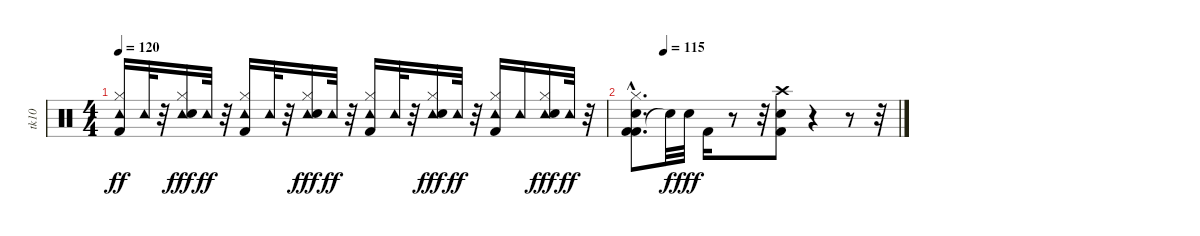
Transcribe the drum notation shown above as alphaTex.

\track ("tk10" "tk10") {instrument percussion}
\staff {score}
\articulation defaults
\ts (4 4)
\tempo 120
\clef neutral
\ks c
("Tambourine (hit)" "Hi-Hat (closed)" "Kick (hit) 2").16{dy ff} "Tambourine (hit)".32 r.32 ("Tambourine (hit)" "Hi-Hat (closed)" "Snare (hit) 2").16{dy fff} "Tambourine (hit)".32{dy ff} r.32 ("Tambourine (hit)" "Hi-Hat (closed)" "Kick (hit) 2").16 "Tambourine (hit)".32 r.32 ("Tambourine (hit)" "Hi-Hat (closed)" "Snare (hit) 2").16{dy fff} "Tambourine (hit)".32{dy ff} r.32 ("Tambourine (hit)" "Hi-Hat (closed)" "Kick (hit) 2").16 "Tambourine (hit)".32 r.32 ("Tambourine (hit)" "Hi-Hat (closed)" "Snare (hit) 2").16{dy fff} "Tambourine (hit)".32{dy ff} r.32 ("Tambourine (hit)" "Hi-Hat (closed)" "Kick (hit) 2").16 "Tambourine (hit)".16 ("Tambourine (hit)" "Hi-Hat (closed)" "Snare (hit) 2").16{dy fff} "Tambourine (hit)".32{dy ff} r.32 |
\tempo (115 0.125)
("Kick (hit) 2"{hac} "Snare (hit) 2"{hac} "Hi-Hat (closed)" "Kick (hit) 2").8{d} "Snare (hit)"{t}.32{dy f} "Snare (hit) 2".32{dy fff} "Kick (hit) 2".16 r.8 r.32 ("Snare (hit) 2" "Kick (hit) 2" "Crash high (hit)").8 r.4 r.8 r.32
